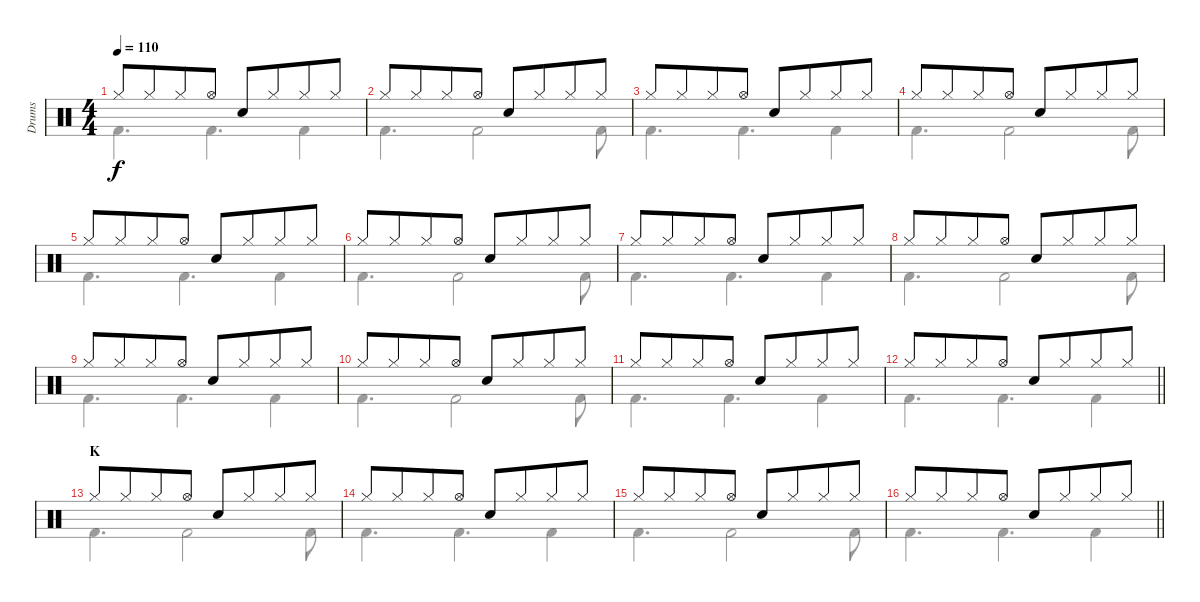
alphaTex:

\track ("Drums" "Drums") {instrument percussion}
\staff {score}
\articulation defaults
\voice
\ts (4 4)
\tempo 110
\clef neutral
\ks c "Hi-Hat (closed)".8{dy f} "Hi-Hat (closed)".8{beam merge} "Hi-Hat (closed)".8 "Hi-Hat (open)".8 "Snare (hit) 2".8 "Hi-Hat (closed)".8{beam merge} "Hi-Hat (closed)".8 "Hi-Hat (closed)".8
|
"Hi-Hat (closed)".8 "Hi-Hat (closed)".8{beam merge} "Hi-Hat (closed)".8 "Hi-Hat (open)".8 "Snare (hit) 2".8 "Hi-Hat (closed)".8{beam merge} "Hi-Hat (closed)".8 "Hi-Hat (closed)".8 |
"Hi-Hat (closed)".8 "Hi-Hat (closed)".8{beam merge} "Hi-Hat (closed)".8 "Hi-Hat (open)".8 "Snare (hit) 2".8 "Hi-Hat (closed)".8{beam merge} "Hi-Hat (closed)".8 "Hi-Hat (closed)".8 |
"Hi-Hat (closed)".8 "Hi-Hat (closed)".8{beam merge} "Hi-Hat (closed)".8 "Hi-Hat (open)".8 "Snare (hit) 2".8 "Hi-Hat (closed)".8{beam merge} "Hi-Hat (closed)".8 "Hi-Hat (closed)".8 |
"Hi-Hat (closed)".8 "Hi-Hat (closed)".8{beam merge} "Hi-Hat (closed)".8 "Hi-Hat (open)".8 "Snare (hit) 2".8 "Hi-Hat (closed)".8{beam merge} "Hi-Hat (closed)".8 "Hi-Hat (closed)".8 |
"Hi-Hat (closed)".8 "Hi-Hat (closed)".8{beam merge} "Hi-Hat (closed)".8 "Hi-Hat (open)".8 "Snare (hit) 2".8 "Hi-Hat (closed)".8{beam merge} "Hi-Hat (closed)".8 "Hi-Hat (closed)".8 |
"Hi-Hat (closed)".8 "Hi-Hat (closed)".8{beam merge} "Hi-Hat (closed)".8 "Hi-Hat (open)".8 "Snare (hit) 2".8 "Hi-Hat (closed)".8{beam merge} "Hi-Hat (closed)".8 "Hi-Hat (closed)".8 |
"Hi-Hat (closed)".8 "Hi-Hat (closed)".8{beam merge} "Hi-Hat (closed)".8 "Hi-Hat (open)".8 "Snare (hit) 2".8 "Hi-Hat (closed)".8{beam merge} "Hi-Hat (closed)".8 "Hi-Hat (closed)".8 |
"Hi-Hat (closed)".8 "Hi-Hat (closed)".8{beam merge} "Hi-Hat (closed)".8 "Hi-Hat (open)".8 "Snare (hit) 2".8 "Hi-Hat (closed)".8{beam merge} "Hi-Hat (closed)".8 "Hi-Hat (closed)".8 |
"Hi-Hat (closed)".8 "Hi-Hat (closed)".8{beam merge} "Hi-Hat (closed)".8 "Hi-Hat (open)".8 "Snare (hit) 2".8 "Hi-Hat (closed)".8{beam merge} "Hi-Hat (closed)".8 "Hi-Hat (closed)".8 |
"Hi-Hat (closed)".8 "Hi-Hat (closed)".8{beam merge} "Hi-Hat (closed)".8 "Hi-Hat (open)".8 "Snare (hit) 2".8 "Hi-Hat (closed)".8{beam merge} "Hi-Hat (closed)".8 "Hi-Hat (closed)".8 |
\barLineRight lightlight "Hi-Hat (closed)".8 "Hi-Hat (closed)".8{beam merge} "Hi-Hat (closed)".8 "Hi-Hat (open)".8 "Snare (hit) 2".8 "Hi-Hat (closed)".8{beam merge} "Hi-Hat (closed)".8 "Hi-Hat (closed)".8
|
\section ("" "K")
"Hi-Hat (closed)".8 "Hi-Hat (closed)".8{beam merge} "Hi-Hat (closed)".8 "Hi-Hat (open)".8 "Snare (hit) 2".8 "Hi-Hat (closed)".8{beam merge} "Hi-Hat (closed)".8 "Hi-Hat (closed)".8 |
"Hi-Hat (closed)".8 "Hi-Hat (closed)".8{beam merge} "Hi-Hat (closed)".8 "Hi-Hat (open)".8 "Snare (hit) 2".8 "Hi-Hat (closed)".8{beam merge} "Hi-Hat (closed)".8 "Hi-Hat (closed)".8 |
"Hi-Hat (closed)".8 "Hi-Hat (closed)".8{beam merge} "Hi-Hat (closed)".8 "Hi-Hat (open)".8 "Snare (hit) 2".8 "Hi-Hat (closed)".8{beam merge} "Hi-Hat (closed)".8 "Hi-Hat (closed)".8 |
\barLineRight lightlight "Hi-Hat (closed)".8 "Hi-Hat (closed)".8{beam merge} "Hi-Hat (closed)".8 "Hi-Hat (open)".8 "Snare (hit) 2".8 "Hi-Hat (closed)".8{beam merge} "Hi-Hat (closed)".8 "Hi-Hat (closed)".8
\voice
\clef neutral
\ottava regular
\simile none
\ks c "Kick (hit) 2".4{d dy f} "Kick (hit) 2".4{d} "Kick (hit) 2".4
|
"Kick (hit) 2".4{d} "Kick (hit) 2".2 "Kick (hit) 2".8 |
"Kick (hit) 2".4{d} "Kick (hit) 2".4{d} "Kick (hit) 2".4 |
"Kick (hit) 2".4{d} "Kick (hit) 2".2 "Kick (hit) 2".8 |
"Kick (hit) 2".4{d} "Kick (hit) 2".4{d} "Kick (hit) 2".4 |
"Kick (hit) 2".4{d} "Kick (hit) 2".2 "Kick (hit) 2".8 |
"Kick (hit) 2".4{d} "Kick (hit) 2".4{d} "Kick (hit) 2".4 |
"Kick (hit) 2".4{d} "Kick (hit) 2".2 "Kick (hit) 2".8 |
"Kick (hit) 2".4{d} "Kick (hit) 2".4{d} "Kick (hit) 2".4 |
"Kick (hit) 2".4{d} "Kick (hit) 2".2 "Kick (hit) 2".8 |
"Kick (hit) 2".4{d} "Kick (hit) 2".4{d} "Kick (hit) 2".4 |
\barLineRight lightlight "Kick (hit) 2".4{d} "Kick (hit) 2".4{d} "Kick (hit) 2".4
|
"Kick (hit) 2".4{d} "Kick (hit) 2".2 "Kick (hit) 2".8 |
"Kick (hit) 2".4{d} "Kick (hit) 2".4{d} "Kick (hit) 2".4 |
"Kick (hit) 2".4{d} "Kick (hit) 2".2 "Kick (hit) 2".8 |
\barLineRight lightlight "Kick (hit) 2".4{d} "Kick (hit) 2".4{d} "Kick (hit) 2".4
